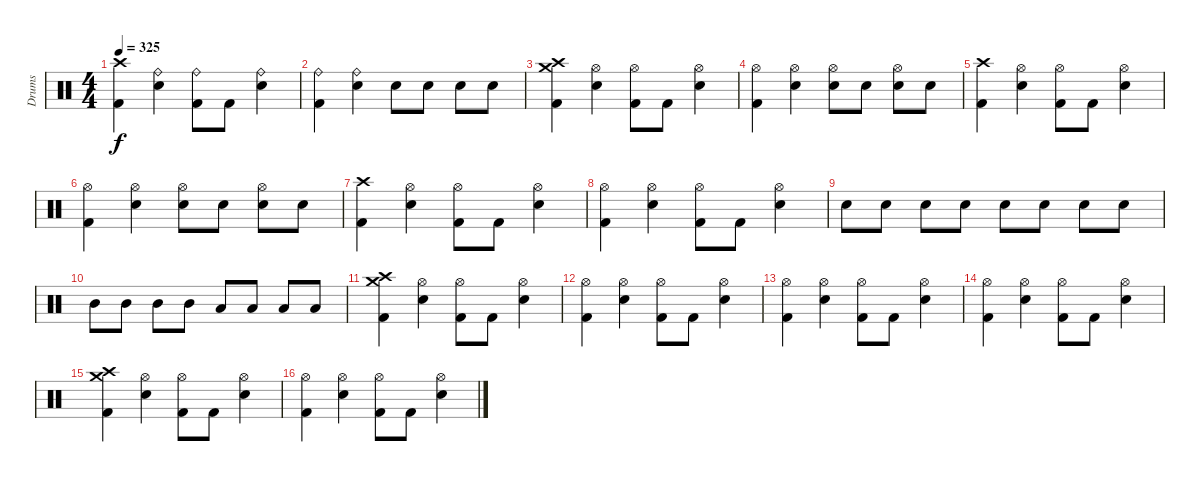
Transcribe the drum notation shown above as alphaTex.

\track ("Drums" "Drums") {instrument percussion}
\staff {score}
\articulation defaults
\ts (4 4)
\tempo 325
\clef neutral
\ks c
("Crash high (hit)" "Kick (hit) 2").4{dy f} ("Electric Snare (hit)" "Ride (bell)").4 ("Kick (hit) 2" "Ride (bell)").8 "Kick (hit) 2".8 ("Electric Snare (hit)" "Ride (bell)").4 |
("Kick (hit) 2" "Ride (bell)").4 ("Electric Snare (hit)" "Ride (bell)").4 "Electric Snare (hit)".8 "Electric Snare (hit)".8 "Electric Snare (hit)".8 "Electric Snare (hit)".8 |
("Kick (hit) 2" "Crash medium (hit)" "Crash high (hit)").4 ("Snare (hit) 2" "Hi-Hat (open)").4 ("Kick (hit) 2" "Hi-Hat (open)").8 "Kick (hit) 2".8 ("Snare (hit) 2" "Hi-Hat (open)").4 |
("Kick (hit) 2" "Hi-Hat (open)").4 ("Electric Snare (hit)" "Hi-Hat (open)").4 ("Electric Snare (hit)" "Hi-Hat (open)").8 "Electric Snare (hit)".8 ("Electric Snare (hit)" "Hi-Hat (open)").8 "Electric Snare (hit)".8 |
("Crash high (hit)" "Kick (hit) 2").4 ("Electric Snare (hit)" "Hi-Hat (open)").4 ("Kick (hit) 2" "Hi-Hat (open)").8 "Kick (hit) 2".8 ("Electric Snare (hit)" "Hi-Hat (open)").4 |
("Kick (hit) 2" "Hi-Hat (open)").4 ("Electric Snare (hit)" "Hi-Hat (open)").4 ("Electric Snare (hit)" "Hi-Hat (open)").8 "Electric Snare (hit)".8 ("Electric Snare (hit)" "Hi-Hat (open)").8 "Electric Snare (hit)".8 |
("Crash high (hit)" "Kick (hit) 2").4 ("Electric Snare (hit)" "Hi-Hat (open)").4 ("Kick (hit) 2" "Hi-Hat (open)").8 "Kick (hit) 2".8 ("Electric Snare (hit)" "Hi-Hat (open)").4 |
("Kick (hit) 2" "Hi-Hat (open)").4 ("Hi-Hat (open)" "Electric Snare (hit)").4 ("Hi-Hat (open)" "Kick (hit) 2").8 "Kick (hit) 2".8 ("Hi-Hat (open)" "Electric Snare (hit)").4 |
"Electric Snare (hit)".8 "Electric Snare (hit)".8 "Electric Snare (hit)".8 "Electric Snare (hit)".8 "Electric Snare (hit)".8 "Electric Snare (hit)".8 "Electric Snare (hit)".8 "Electric Snare (hit)".8 |
"Mid Tom (hit)".8 "Mid Tom (hit)".8 "Mid Tom (hit)".8 "Mid Tom (hit)".8 "Low Tom (hit)".8 "Low Tom (hit)".8 "Low Tom (hit)".8 "Low Tom (hit)".8 |
("Crash high (hit)" "Crash medium (hit)" "Kick (hit) 2").4 ("Electric Snare (hit)" "Hi-Hat (open)").4 ("Kick (hit) 2" "Hi-Hat (open)").8 "Kick (hit) 2".8 ("Electric Snare (hit)" "Hi-Hat (open)").4 |
("Kick (hit) 2" "Hi-Hat (open)").4 ("Electric Snare (hit)" "Hi-Hat (open)").4 ("Kick (hit) 2" "Hi-Hat (open)").8 "Kick (hit) 2".8 ("Electric Snare (hit)" "Hi-Hat (open)").4 |
("Kick (hit) 2" "Hi-Hat (open)").4 ("Electric Snare (hit)" "Hi-Hat (open)").4 ("Kick (hit) 2" "Hi-Hat (open)").8 "Kick (hit) 2".8 ("Electric Snare (hit)" "Hi-Hat (open)").4 |
("Kick (hit) 2" "Hi-Hat (open)").4 ("Electric Snare (hit)" "Hi-Hat (open)").4 ("Kick (hit) 2" "Hi-Hat (open)").8 "Kick (hit) 2".8 ("Electric Snare (hit)" "Hi-Hat (open)").4 |
("Crash high (hit)" "Crash medium (hit)" "Kick (hit) 2").4 ("Electric Snare (hit)" "Hi-Hat (open)").4 ("Kick (hit) 2" "Hi-Hat (open)").8 "Kick (hit) 2".8 ("Electric Snare (hit)" "Hi-Hat (open)").4 |
("Kick (hit) 2" "Hi-Hat (open)").4 ("Electric Snare (hit)" "Hi-Hat (open)").4 ("Kick (hit) 2" "Hi-Hat (open)").8 "Kick (hit) 2".8 ("Electric Snare (hit)" "Hi-Hat (open)").4
